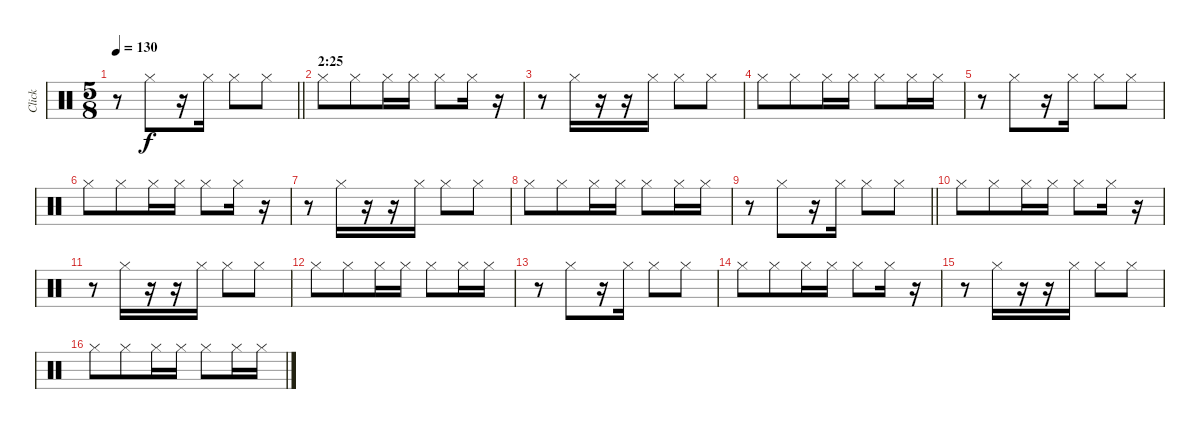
\track ("Click" "Click") {instrument percussion}
\staff {score}
\articulation defaults
\ts (5 8)
\tempo 130
\clef neutral
\barLineRight lightlight
\ks c
r.8{dy f} "Hi-Hat (closed)".8 r.16 "Hi-Hat (closed)".16 "Hi-Hat (closed)".8 "Hi-Hat (closed)".8 |
\section ("" "2:25")
"Hi-Hat (closed)".8 "Hi-Hat (closed)".8 "Hi-Hat (closed)".16 "Hi-Hat (closed)".16 "Hi-Hat (closed)".8 "Hi-Hat (closed)".16 r.16 |
r.8 "Hi-Hat (closed)".16 r.16 r.16 "Hi-Hat (closed)".16 "Hi-Hat (closed)".8 "Hi-Hat (closed)".8 |
"Hi-Hat (closed)".8 "Hi-Hat (closed)".8 "Hi-Hat (closed)".16 "Hi-Hat (closed)".16 "Hi-Hat (closed)".8 "Hi-Hat (closed)".16 "Hi-Hat (closed)".16 |
r.8 "Hi-Hat (closed)".8 r.16 "Hi-Hat (closed)".16 "Hi-Hat (closed)".8 "Hi-Hat (closed)".8 |
"Hi-Hat (closed)".8 "Hi-Hat (closed)".8 "Hi-Hat (closed)".16 "Hi-Hat (closed)".16 "Hi-Hat (closed)".8 "Hi-Hat (closed)".16 r.16 |
r.8 "Hi-Hat (closed)".16 r.16 r.16 "Hi-Hat (closed)".16 "Hi-Hat (closed)".8 "Hi-Hat (closed)".8 |
"Hi-Hat (closed)".8 "Hi-Hat (closed)".8 "Hi-Hat (closed)".16 "Hi-Hat (closed)".16 "Hi-Hat (closed)".8 "Hi-Hat (closed)".16 "Hi-Hat (closed)".16 |
\barLineRight lightlight
r.8 "Hi-Hat (closed)".8 r.16 "Hi-Hat (closed)".16 "Hi-Hat (closed)".8 "Hi-Hat (closed)".8 |
"Hi-Hat (closed)".8 "Hi-Hat (closed)".8 "Hi-Hat (closed)".16 "Hi-Hat (closed)".16 "Hi-Hat (closed)".8 "Hi-Hat (closed)".16 r.16 |
r.8 "Hi-Hat (closed)".16 r.16 r.16 "Hi-Hat (closed)".16 "Hi-Hat (closed)".8 "Hi-Hat (closed)".8 |
"Hi-Hat (closed)".8 "Hi-Hat (closed)".8 "Hi-Hat (closed)".16 "Hi-Hat (closed)".16 "Hi-Hat (closed)".8 "Hi-Hat (closed)".16 "Hi-Hat (closed)".16 |
r.8 "Hi-Hat (closed)".8 r.16 "Hi-Hat (closed)".16 "Hi-Hat (closed)".8 "Hi-Hat (closed)".8 |
"Hi-Hat (closed)".8 "Hi-Hat (closed)".8 "Hi-Hat (closed)".16 "Hi-Hat (closed)".16 "Hi-Hat (closed)".8 "Hi-Hat (closed)".16 r.16 |
r.8 "Hi-Hat (closed)".16 r.16 r.16 "Hi-Hat (closed)".16 "Hi-Hat (closed)".8 "Hi-Hat (closed)".8 |
"Hi-Hat (closed)".8 "Hi-Hat (closed)".8 "Hi-Hat (closed)".16 "Hi-Hat (closed)".16 "Hi-Hat (closed)".8 "Hi-Hat (closed)".16 "Hi-Hat (closed)".16
